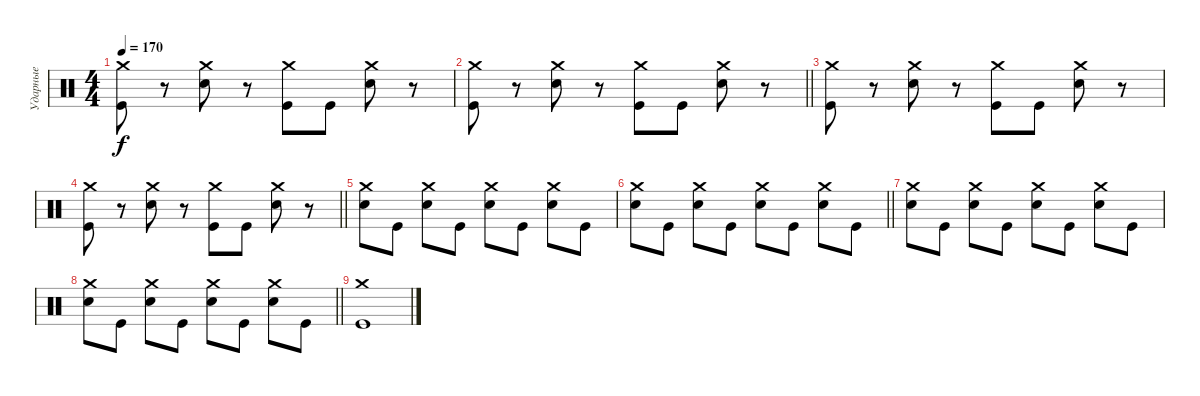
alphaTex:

\track ("Ударные" "Ударные") {instrument percussion}
\staff {score}
\articulation defaults
\ts (4 4)
\tempo 170
\clef neutral
\ks c
("Crash medium (hit)" "Kick (hit)").8{dy f} r.8 ("Crash medium (hit)" "Electric Snare (hit)").8 r.8 ("Crash medium (hit)" "Kick (hit)").8 "Kick (hit)".8 ("Crash medium (hit)" "Electric Snare (hit)").8 r.8 |
\barLineRight lightlight
("Crash medium (hit)" "Kick (hit)").8 r.8 ("Crash medium (hit)" "Electric Snare (hit)").8 r.8 ("Crash medium (hit)" "Kick (hit)").8 "Kick (hit)".8 ("Crash medium (hit)" "Electric Snare (hit)").8 r.8 |
("Crash medium (hit)" "Kick (hit)").8 r.8 ("Crash medium (hit)" "Electric Snare (hit)").8 r.8 ("Crash medium (hit)" "Kick (hit)").8 "Kick (hit)".8 ("Crash medium (hit)" "Electric Snare (hit)").8 r.8 |
\barLineRight lightlight
("Crash medium (hit)" "Kick (hit)").8 r.8 ("Crash medium (hit)" "Electric Snare (hit)").8 r.8 ("Crash medium (hit)" "Kick (hit)").8 "Kick (hit)".8 ("Crash medium (hit)" "Electric Snare (hit)").8 r.8 |
("Crash medium (hit)" "Electric Snare (hit)").8 "Kick (hit)".8 ("Crash medium (hit)" "Electric Snare (hit)").8 "Kick (hit)".8 ("Crash medium (hit)" "Electric Snare (hit)").8 "Kick (hit)".8 ("Crash medium (hit)" "Electric Snare (hit)").8 "Kick (hit)".8 |
\barLineRight lightlight
("Crash medium (hit)" "Electric Snare (hit)").8 "Kick (hit)".8 ("Crash medium (hit)" "Electric Snare (hit)").8 "Kick (hit)".8 ("Crash medium (hit)" "Electric Snare (hit)").8 "Kick (hit)".8 ("Crash medium (hit)" "Electric Snare (hit)").8 "Kick (hit)".8 |
("Crash medium (hit)" "Electric Snare (hit)").8 "Kick (hit)".8 ("Crash medium (hit)" "Electric Snare (hit)").8 "Kick (hit)".8 ("Crash medium (hit)" "Electric Snare (hit)").8 "Kick (hit)".8 ("Crash medium (hit)" "Electric Snare (hit)").8 "Kick (hit)".8 |
\barLineRight lightlight
("Crash medium (hit)" "Electric Snare (hit)").8 "Kick (hit)".8 ("Crash medium (hit)" "Electric Snare (hit)").8 "Kick (hit)".8 ("Crash medium (hit)" "Electric Snare (hit)").8 "Kick (hit)".8 ("Crash medium (hit)" "Electric Snare (hit)").8 "Kick (hit)".8 |
("Crash medium (hit)" "Kick (hit)").1
